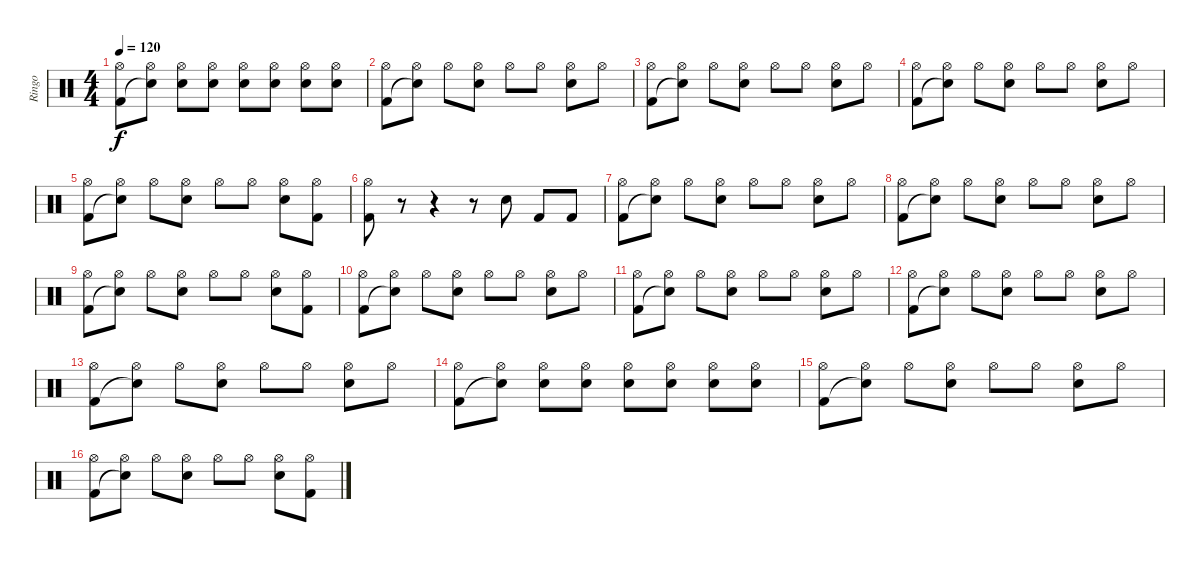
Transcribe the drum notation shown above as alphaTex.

\track ("Ringo" "Ringo") {instrument percussion}
\staff {score}
\articulation defaults
\ts (4 4)
\tempo 120
\clef neutral
\ks c
("Hi-Hat (open)" "Kick (hit) 2").8{dy f} ("Hi-Hat (open)" "Snare (hit)"{t}).8 ("Hi-Hat (open)" "Snare (hit) 2").8 ("Hi-Hat (open)" "Snare (hit) 2").8 ("Hi-Hat (open)" "Snare (hit) 2").8 ("Hi-Hat (open)" "Snare (hit) 2").8 ("Hi-Hat (open)" "Snare (hit) 2").8 ("Hi-Hat (open)" "Snare (hit) 2").8 |
("Hi-Hat (open)" "Kick (hit) 2").8 ("Hi-Hat (open)" "Snare (hit)"{t}).8 "Hi-Hat (open)".8 ("Hi-Hat (open)" "Snare (hit) 2").8 "Hi-Hat (open)".8 "Hi-Hat (open)".8 ("Hi-Hat (open)" "Snare (hit) 2").8 "Hi-Hat (open)".8 |
("Hi-Hat (open)" "Kick (hit) 2").8 ("Hi-Hat (open)" "Snare (hit)"{t}).8 "Hi-Hat (open)".8 ("Hi-Hat (open)" "Snare (hit) 2").8 "Hi-Hat (open)".8 "Hi-Hat (open)".8 ("Hi-Hat (open)" "Snare (hit) 2").8 "Hi-Hat (open)".8 |
("Hi-Hat (open)" "Kick (hit) 2").8 ("Hi-Hat (open)" "Snare (hit)"{t}).8 "Hi-Hat (open)".8 ("Hi-Hat (open)" "Snare (hit) 2").8 "Hi-Hat (open)".8 "Hi-Hat (open)".8 ("Hi-Hat (open)" "Snare (hit) 2").8 "Hi-Hat (open)".8 |
("Hi-Hat (open)" "Kick (hit) 2").8 ("Hi-Hat (open)" "Snare (hit)"{t}).8 "Hi-Hat (open)".8 ("Hi-Hat (open)" "Snare (hit) 2").8 "Hi-Hat (open)".8 "Hi-Hat (open)".8 ("Hi-Hat (open)" "Snare (hit) 2").8 ("Hi-Hat (open)" "Kick (hit) 2").8 |
("Hi-Hat (open)" "Kick (hit) 2").8 r.8 r.4 r.8 "Snare (hit) 2".8 "Kick (hit) 2".8 "Kick (hit) 2".8 |
("Hi-Hat (open)" "Kick (hit) 2").8 ("Hi-Hat (open)" "Snare (hit)"{t}).8 "Hi-Hat (open)".8 ("Hi-Hat (open)" "Snare (hit) 2").8 "Hi-Hat (open)".8 "Hi-Hat (open)".8 ("Hi-Hat (open)" "Snare (hit) 2").8 "Hi-Hat (open)".8 |
("Hi-Hat (open)" "Kick (hit) 2").8 ("Hi-Hat (open)" "Snare (hit)"{t}).8 "Hi-Hat (open)".8 ("Hi-Hat (open)" "Snare (hit) 2").8 "Hi-Hat (open)".8 "Hi-Hat (open)".8 ("Hi-Hat (open)" "Snare (hit) 2").8 "Hi-Hat (open)".8 |
("Hi-Hat (open)" "Kick (hit) 2").8 ("Hi-Hat (open)" "Snare (hit)"{t}).8 "Hi-Hat (open)".8 ("Hi-Hat (open)" "Snare (hit) 2").8 "Hi-Hat (open)".8 "Hi-Hat (open)".8 ("Hi-Hat (open)" "Snare (hit) 2").8 ("Hi-Hat (open)" "Kick (hit) 2").8 |
("Hi-Hat (open)" "Kick (hit) 2").8 ("Hi-Hat (open)" "Snare (hit)"{t}).8 "Hi-Hat (open)".8 ("Hi-Hat (open)" "Snare (hit) 2").8 "Hi-Hat (open)".8 "Hi-Hat (open)".8 ("Hi-Hat (open)" "Snare (hit) 2").8 "Hi-Hat (open)".8 |
("Hi-Hat (open)" "Kick (hit) 2").8 ("Hi-Hat (open)" "Snare (hit)"{t}).8 "Hi-Hat (open)".8 ("Hi-Hat (open)" "Snare (hit) 2").8 "Hi-Hat (open)".8 "Hi-Hat (open)".8 ("Hi-Hat (open)" "Snare (hit) 2").8 "Hi-Hat (open)".8 |
("Hi-Hat (open)" "Kick (hit) 2").8 ("Hi-Hat (open)" "Snare (hit)"{t}).8 "Hi-Hat (open)".8 ("Hi-Hat (open)" "Snare (hit) 2").8 "Hi-Hat (open)".8 "Hi-Hat (open)".8 ("Hi-Hat (open)" "Snare (hit) 2").8 "Hi-Hat (open)".8 |
("Hi-Hat (open)" "Kick (hit) 2").8 ("Hi-Hat (open)" "Snare (hit)"{t}).8 "Hi-Hat (open)".8 ("Hi-Hat (open)" "Snare (hit) 2").8 "Hi-Hat (open)".8 "Hi-Hat (open)".8 ("Hi-Hat (open)" "Snare (hit) 2").8 "Hi-Hat (open)".8 |
("Hi-Hat (open)" "Kick (hit) 2").8 ("Hi-Hat (open)" "Snare (hit)"{t}).8 ("Hi-Hat (open)" "Snare (hit) 2").8 ("Hi-Hat (open)" "Snare (hit) 2").8 ("Hi-Hat (open)" "Snare (hit) 2").8 ("Hi-Hat (open)" "Snare (hit) 2").8 ("Hi-Hat (open)" "Snare (hit) 2").8 ("Hi-Hat (open)" "Snare (hit) 2").8 |
("Hi-Hat (open)" "Kick (hit) 2").8 ("Hi-Hat (open)" "Snare (hit)"{t}).8 "Hi-Hat (open)".8 ("Hi-Hat (open)" "Snare (hit) 2").8 "Hi-Hat (open)".8 "Hi-Hat (open)".8 ("Hi-Hat (open)" "Snare (hit) 2").8 "Hi-Hat (open)".8 |
("Hi-Hat (open)" "Kick (hit) 2").8 ("Hi-Hat (open)" "Snare (hit)"{t}).8 "Hi-Hat (open)".8 ("Hi-Hat (open)" "Snare (hit) 2").8 "Hi-Hat (open)".8 "Hi-Hat (open)".8 ("Hi-Hat (open)" "Snare (hit) 2").8 ("Hi-Hat (open)" "Kick (hit) 2").8
